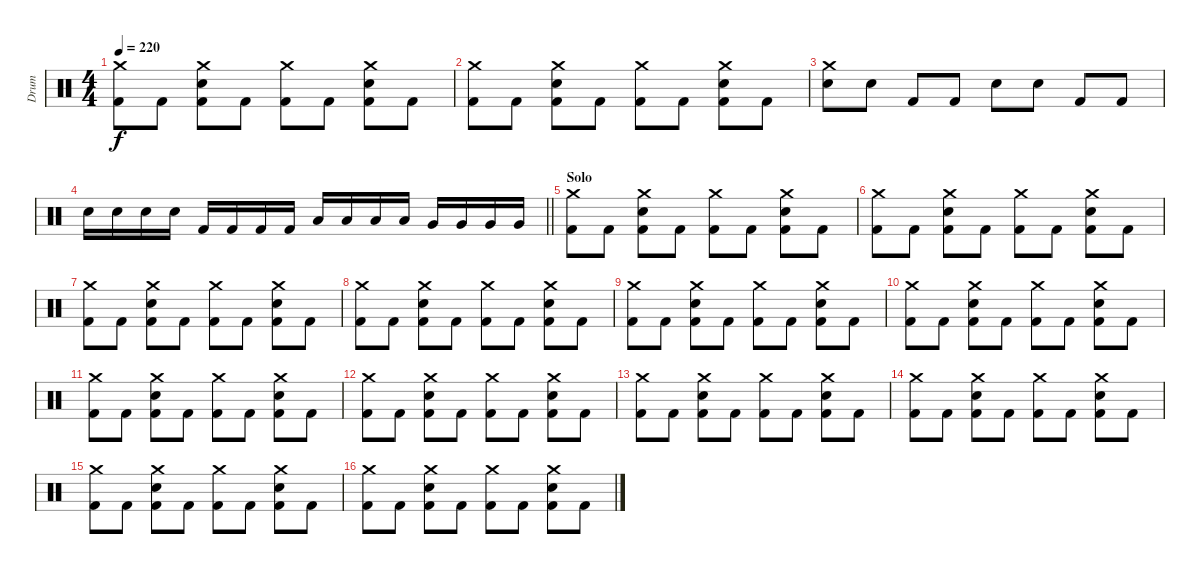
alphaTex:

\track ("Drum" "Drum") {instrument percussion}
\staff {score}
\articulation defaults
\ts (4 4)
\tempo 220
\clef neutral
\ks c
("Crash medium (hit)" "Kick (hit) 2").8{dy f} "Kick (hit) 2".8 ("Crash medium (hit)" "Electric Snare (hit)" "Kick (hit) 2").8 "Kick (hit) 2".8 ("Crash medium (hit)" "Kick (hit) 2").8 "Kick (hit) 2".8 ("Crash medium (hit)" "Electric Snare (hit)" "Kick (hit) 2").8 "Kick (hit) 2".8 |
("Crash medium (hit)" "Kick (hit) 2").8 "Kick (hit) 2".8 ("Crash medium (hit)" "Electric Snare (hit)" "Kick (hit) 2").8 "Kick (hit) 2".8 ("Crash medium (hit)" "Kick (hit) 2").8 "Kick (hit) 2".8 ("Crash medium (hit)" "Electric Snare (hit)" "Kick (hit) 2").8 "Kick (hit) 2".8 |
("Crash medium (hit)" "Electric Snare (hit)").8 "Electric Snare (hit)".8 "Kick (hit) 2".8 "Kick (hit) 2".8 "Electric Snare (hit)".8 "Electric Snare (hit)".8 "Kick (hit) 2".8 "Kick (hit) 2".8 |
\barLineRight lightlight "Electric Snare (hit)".16 "Electric Snare (hit)".16 "Electric Snare (hit)".16 "Electric Snare (hit)".16 "Kick (hit) 2".16 "Kick (hit) 2".16 "Kick (hit) 2".16 "Kick (hit) 2".16 "Low Tom (hit)".16 "Low Tom (hit)".16 "Low Tom (hit)".16 "Low Tom (hit)".16 "Very Low Tom (hit)".16 "Very Low Tom (hit)".16 "Very Low Tom (hit)".16 "Very Low Tom (hit)".16
|
\section ("" "Solo")
("Crash medium (hit)" "Kick (hit) 2").8 "Kick (hit) 2".8 ("Crash medium (hit)" "Electric Snare (hit)" "Kick (hit) 2").8 "Kick (hit) 2".8 ("Crash medium (hit)" "Kick (hit) 2").8 "Kick (hit) 2".8 ("Crash medium (hit)" "Electric Snare (hit)" "Kick (hit) 2").8 "Kick (hit) 2".8 |
("Crash medium (hit)" "Kick (hit) 2").8 "Kick (hit) 2".8 ("Crash medium (hit)" "Electric Snare (hit)" "Kick (hit) 2").8 "Kick (hit) 2".8 ("Crash medium (hit)" "Kick (hit) 2").8 "Kick (hit) 2".8 ("Crash medium (hit)" "Electric Snare (hit)" "Kick (hit) 2").8 "Kick (hit) 2".8 |
("Crash medium (hit)" "Kick (hit) 2").8 "Kick (hit) 2".8 ("Crash medium (hit)" "Electric Snare (hit)" "Kick (hit) 2").8 "Kick (hit) 2".8 ("Crash medium (hit)" "Kick (hit) 2").8 "Kick (hit) 2".8 ("Crash medium (hit)" "Electric Snare (hit)" "Kick (hit) 2").8 "Kick (hit) 2".8 |
("Crash medium (hit)" "Kick (hit) 2").8 "Kick (hit) 2".8 ("Crash medium (hit)" "Electric Snare (hit)" "Kick (hit) 2").8 "Kick (hit) 2".8 ("Crash medium (hit)" "Kick (hit) 2").8 "Kick (hit) 2".8 ("Crash medium (hit)" "Electric Snare (hit)" "Kick (hit) 2").8 "Kick (hit) 2".8 |
("Crash medium (hit)" "Kick (hit) 2").8 "Kick (hit) 2".8 ("Crash medium (hit)" "Electric Snare (hit)" "Kick (hit) 2").8 "Kick (hit) 2".8 ("Crash medium (hit)" "Kick (hit) 2").8 "Kick (hit) 2".8 ("Crash medium (hit)" "Electric Snare (hit)" "Kick (hit) 2").8 "Kick (hit) 2".8 |
("Crash medium (hit)" "Kick (hit) 2").8 "Kick (hit) 2".8 ("Crash medium (hit)" "Electric Snare (hit)" "Kick (hit) 2").8 "Kick (hit) 2".8 ("Crash medium (hit)" "Kick (hit) 2").8 "Kick (hit) 2".8 ("Crash medium (hit)" "Electric Snare (hit)" "Kick (hit) 2").8 "Kick (hit) 2".8 |
("Crash medium (hit)" "Kick (hit) 2").8 "Kick (hit) 2".8 ("Crash medium (hit)" "Electric Snare (hit)" "Kick (hit) 2").8 "Kick (hit) 2".8 ("Crash medium (hit)" "Kick (hit) 2").8 "Kick (hit) 2".8 ("Crash medium (hit)" "Electric Snare (hit)" "Kick (hit) 2").8 "Kick (hit) 2".8 |
("Crash medium (hit)" "Kick (hit) 2").8 "Kick (hit) 2".8 ("Crash medium (hit)" "Electric Snare (hit)" "Kick (hit) 2").8 "Kick (hit) 2".8 ("Crash medium (hit)" "Kick (hit) 2").8 "Kick (hit) 2".8 ("Crash medium (hit)" "Electric Snare (hit)" "Kick (hit) 2").8 "Kick (hit) 2".8 |
("Crash medium (hit)" "Kick (hit) 2").8 "Kick (hit) 2".8 ("Crash medium (hit)" "Electric Snare (hit)" "Kick (hit) 2").8 "Kick (hit) 2".8 ("Crash medium (hit)" "Kick (hit) 2").8 "Kick (hit) 2".8 ("Crash medium (hit)" "Electric Snare (hit)" "Kick (hit) 2").8 "Kick (hit) 2".8 |
("Crash medium (hit)" "Kick (hit) 2").8 "Kick (hit) 2".8 ("Crash medium (hit)" "Electric Snare (hit)" "Kick (hit) 2").8 "Kick (hit) 2".8 ("Crash medium (hit)" "Kick (hit) 2").8 "Kick (hit) 2".8 ("Crash medium (hit)" "Electric Snare (hit)" "Kick (hit) 2").8 "Kick (hit) 2".8 |
("Crash medium (hit)" "Kick (hit) 2").8 "Kick (hit) 2".8 ("Crash medium (hit)" "Electric Snare (hit)" "Kick (hit) 2").8 "Kick (hit) 2".8 ("Crash medium (hit)" "Kick (hit) 2").8 "Kick (hit) 2".8 ("Crash medium (hit)" "Electric Snare (hit)" "Kick (hit) 2").8 "Kick (hit) 2".8 |
("Crash medium (hit)" "Kick (hit) 2").8 "Kick (hit) 2".8 ("Crash medium (hit)" "Electric Snare (hit)" "Kick (hit) 2").8 "Kick (hit) 2".8 ("Crash medium (hit)" "Kick (hit) 2").8 "Kick (hit) 2".8 ("Crash medium (hit)" "Electric Snare (hit)" "Kick (hit) 2").8 "Kick (hit) 2".8
